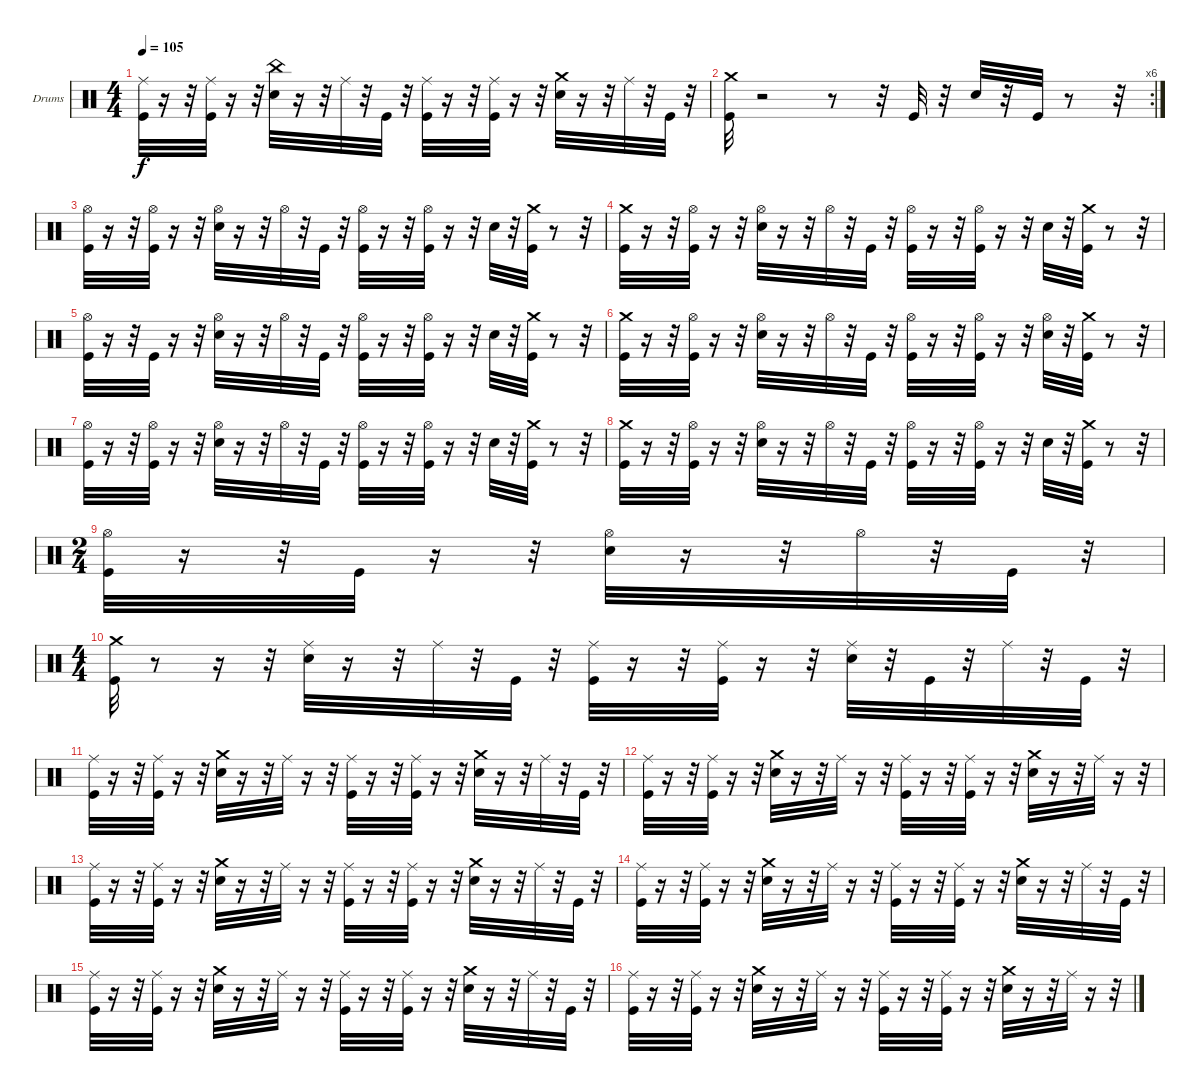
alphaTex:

\defaultSystemsLayout 4
\bracketExtendMode groupsimilarinstruments
\firstSystemTrackNameOrientation horizontal
\otherSystemsTrackNameOrientation horizontal
\track ("Drumkit" "Drums") {instrument percussion}
\staff {score}
\articulation defaults
\ts (4 4)
\tempo 105
\clef neutral
\ks c
("Kick (hit)" "Ride (middle)").32{dy f} r.16 r.32 ("Kick (hit)" "Ride (middle)").32 r.16 r.32 ("China (hit)" "Snare (hit) 2").32 r.16 r.32 "Ride (middle)".32 r.32 "Kick (hit)".32 r.32 ("Kick (hit)" "Ride (middle)").32 r.16 r.32 ("Ride (middle)" "Kick (hit)").32 r.16 r.32 ("Snare (hit) 2" "Crash medium (hit)").32 r.16 r.32 "Ride (middle)".32 r.32 "Kick (hit)".32 r.32 |
\rc 6
("Crash medium (hit)" "Kick (hit)").32 r.2 r.8 r.32 "Kick (hit)".32 r.32 "Snare (hit) 2".32 r.32 "Kick (hit)".32 r.8 r.32 |
("Hi-Hat (open)" "Kick (hit)").32 r.16 r.32 ("Kick (hit)" "Hi-Hat (open)").32 r.16 r.32 ("Hi-Hat (open)" "Snare (hit) 2").32 r.16 r.32 "Hi-Hat (open)".32 r.32 "Kick (hit)".32 r.32 ("Kick (hit)" "Hi-Hat (open)").32 r.16 r.32 ("Kick (hit)" "Hi-Hat (open)").32 r.16 r.32 "Snare (hit) 2".32 r.32 ("Kick (hit)" "Crash medium (hit)").32 r.8 r.32 |
("Crash medium (hit)" "Kick (hit)").32 r.16 r.32 ("Kick (hit)" "Hi-Hat (open)").32 r.16 r.32 ("Snare (hit) 2" "Hi-Hat (open)").32 r.16 r.32 "Hi-Hat (open)".32 r.32 "Kick (hit)".32 r.32 ("Kick (hit)" "Hi-Hat (open)").32 r.16 r.32 ("Hi-Hat (open)" "Kick (hit)").32 r.16 r.32 "Snare (hit) 2".32 r.32 ("Crash medium (hit)" "Kick (hit)").32 r.8 r.32 |
("Kick (hit)" "Hi-Hat (open)").32 r.16 r.32 "Kick (hit)".32 r.16 r.32 ("Snare (hit) 2" "Hi-Hat (open)").32 r.16 r.32 "Hi-Hat (open)".32 r.32 "Kick (hit)".32 r.32 ("Hi-Hat (open)" "Kick (hit)").32 r.16 r.32 ("Kick (hit)" "Hi-Hat (open)").32 r.16 r.32 "Snare (hit) 2".32 r.32 ("Kick (hit)" "Crash medium (hit)").32 r.8 r.32 |
("Crash medium (hit)" "Kick (hit)").32 r.16 r.32 ("Hi-Hat (open)" "Kick (hit)").32 r.16 r.32 ("Hi-Hat (open)" "Snare (hit) 2").32 r.16 r.32 "Hi-Hat (open)".32 r.32 "Kick (hit)".32 r.32 ("Kick (hit)" "Hi-Hat (open)").32 r.16 r.32 ("Kick (hit)" "Hi-Hat (open)").32 r.16 r.32 ("Hi-Hat (open)" "Snare (hit) 2").32 r.32 ("Kick (hit)" "Crash medium (hit)").32 r.8 r.32 |
("Hi-Hat (open)" "Kick (hit)").32 r.16 r.32 ("Kick (hit)" "Hi-Hat (open)").32 r.16 r.32 ("Hi-Hat (open)" "Snare (hit) 2").32 r.16 r.32 "Hi-Hat (open)".32 r.32 "Kick (hit)".32 r.32 ("Kick (hit)" "Hi-Hat (open)").32 r.16 r.32 ("Kick (hit)" "Hi-Hat (open)").32 r.16 r.32 "Snare (hit) 2".32 r.32 ("Kick (hit)" "Crash medium (hit)").32 r.8 r.32 |
("Crash medium (hit)" "Kick (hit)").32 r.16 r.32 ("Kick (hit)" "Hi-Hat (open)").32 r.16 r.32 ("Snare (hit) 2" "Hi-Hat (open)").32 r.16 r.32 "Hi-Hat (open)".32 r.32 "Kick (hit)".32 r.32 ("Kick (hit)" "Hi-Hat (open)").32 r.16 r.32 ("Hi-Hat (open)" "Kick (hit)").32 r.16 r.32 "Snare (hit) 2".32 r.32 ("Crash medium (hit)" "Kick (hit)").32 r.8 r.32 |
\ts (2 4)
("Kick (hit)" "Hi-Hat (open)").32 r.16 r.32 "Kick (hit)".32 r.16 r.32 ("Snare (hit) 2" "Hi-Hat (open)").32 r.16 r.32 "Hi-Hat (open)".32 r.32 "Kick (hit)".32 r.32 |
\ts (4 4)
("Crash medium (hit)" "Kick (hit)").32 r.8 r.16 r.32 ("Ride (middle)" "Snare (hit) 2").32 r.16 r.32 "Ride (middle)".32 r.32 "Kick (hit)".32 r.32 ("Kick (hit)" "Ride (middle)").32 r.16 r.32 ("Kick (hit)" "Ride (middle)").32 r.16 r.32 ("Ride (middle)" "Snare (hit) 2").32 r.32 "Kick (hit)".32 r.32 "Ride (middle)".32 r.32 "Kick (hit)".32 r.32 |
("Ride (middle)" "Kick (hit)").32 r.16 r.32 ("Ride (middle)" "Kick (hit)").32 r.16 r.32 ("Crash medium (hit)" "Snare (hit) 2").32 r.16 r.32 "Ride (middle)".32 r.16 r.32 ("Ride (middle)" "Kick (hit)").32 r.16 r.32 ("Ride (middle)" "Kick (hit)").32 r.16 r.32 ("Crash medium (hit)" "Snare (hit) 2").32 r.16 r.32 "Ride (middle)".32 r.32 "Kick (hit)".32 r.32 |
("Kick (hit)" "Ride (middle)").32 r.16 r.32 ("Ride (middle)" "Kick (hit)").32 r.16 r.32 ("Snare (hit) 2" "Crash medium (hit)").32 r.16 r.32 "Ride (middle)".32 r.16 r.32 ("Ride (middle)" "Kick (hit)").32 r.16 r.32 ("Kick (hit)" "Ride (middle)").32 r.16 r.32 ("Snare (hit) 2" "Crash medium (hit)").32 r.16 r.32 "Ride (middle)".32 r.16 r.32 |
("Kick (hit)" "Ride (middle)").32 r.16 r.32 ("Ride (middle)" "Kick (hit)").32 r.16 r.32 ("Crash medium (hit)" "Snare (hit) 2").32 r.16 r.32 "Ride (middle)".32 r.16 r.32 ("Kick (hit)" "Ride (middle)").32 r.16 r.32 ("Ride (middle)" "Kick (hit)").32 r.16 r.32 ("Crash medium (hit)" "Snare (hit) 2").32 r.16 r.32 "Ride (middle)".32 r.32 "Kick (hit)".32 r.32 |
("Kick (hit)" "Ride (middle)").32 r.16 r.32 ("Ride (middle)" "Kick (hit)").32 r.16 r.32 ("Crash medium (hit)" "Snare (hit) 2").32 r.16 r.32 "Ride (middle)".32 r.16 r.32 ("Ride (middle)" "Kick (hit)").32 r.16 r.32 ("Kick (hit)" "Ride (middle)").32 r.16 r.32 ("Snare (hit) 2" "Crash medium (hit)").32 r.16 r.32 "Ride (middle)".32 r.32 "Kick (hit)".32 r.32 |
("Ride (middle)" "Kick (hit)").32 r.16 r.32 ("Ride (middle)" "Kick (hit)").32 r.16 r.32 ("Crash medium (hit)" "Snare (hit) 2").32 r.16 r.32 "Ride (middle)".32 r.16 r.32 ("Ride (middle)" "Kick (hit)").32 r.16 r.32 ("Ride (middle)" "Kick (hit)").32 r.16 r.32 ("Crash medium (hit)" "Snare (hit) 2").32 r.16 r.32 "Ride (middle)".32 r.32 "Kick (hit)".32 r.32 |
("Kick (hit)" "Ride (middle)").32 r.16 r.32 ("Ride (middle)" "Kick (hit)").32 r.16 r.32 ("Snare (hit) 2" "Crash medium (hit)").32 r.16 r.32 "Ride (middle)".32 r.16 r.32 ("Ride (middle)" "Kick (hit)").32 r.16 r.32 ("Kick (hit)" "Ride (middle)").32 r.16 r.32 ("Snare (hit) 2" "Crash medium (hit)").32 r.16 r.32 "Ride (middle)".32 r.16 r.32
